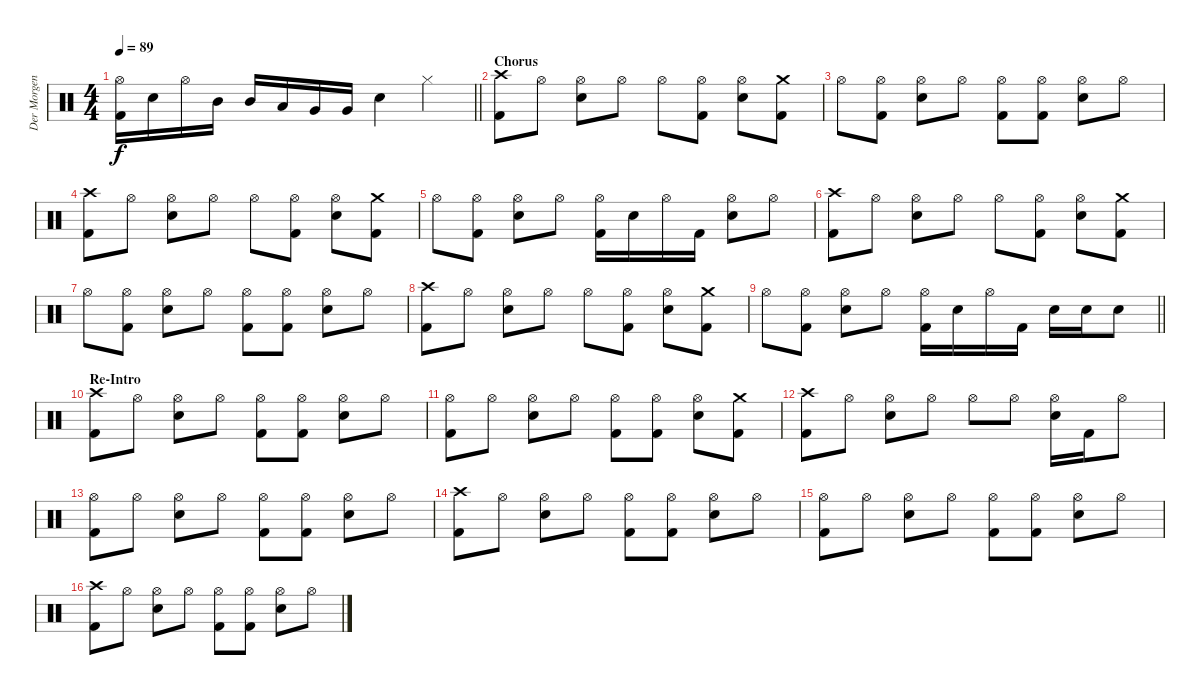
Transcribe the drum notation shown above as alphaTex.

\track ("Der Morgenstern" "Der Morgen") {instrument percussion}
\staff {score}
\articulation defaults
\ts (4 4)
\tempo 89
\clef neutral
\barLineRight lightlight
\ks c
("Hi-Hat (open)" "Kick (hit) 2").16{dy f} "Electric Snare (hit)".16 "Hi-Hat (open)".16 "Mid Tom (hit)".16 "Mid Tom (hit)".16 "Low Tom (hit)".16 "Very Low Tom (hit)".16 "Very Low Tom (hit)".16 "Electric Snare (hit)".4 "Hi-Hat (closed)".4 |
\section ("" "Chorus")
("Crash high (hit)" "Kick (hit) 2").8 "Hi-Hat (open)".8 ("Hi-Hat (open)" "Electric Snare (hit)").8 "Hi-Hat (open)".8 "Hi-Hat (open)".8 ("Hi-Hat (open)" "Kick (hit) 2").8 ("Hi-Hat (open)" "Electric Snare (hit)").8 ("Crash medium (hit)" "Kick (hit) 2").8 |
"Hi-Hat (open)".8 ("Hi-Hat (open)" "Kick (hit) 2").8 ("Hi-Hat (open)" "Electric Snare (hit)").8 "Hi-Hat (open)".8 ("Hi-Hat (open)" "Kick (hit) 2").8 ("Hi-Hat (open)" "Kick (hit) 2").8 ("Hi-Hat (open)" "Electric Snare (hit)").8 "Hi-Hat (open)".8 |
("Crash high (hit)" "Kick (hit) 2").8 "Hi-Hat (open)".8 ("Hi-Hat (open)" "Electric Snare (hit)").8 "Hi-Hat (open)".8 "Hi-Hat (open)".8 ("Hi-Hat (open)" "Kick (hit) 2").8 ("Hi-Hat (open)" "Electric Snare (hit)").8 ("Crash medium (hit)" "Kick (hit) 2").8 |
"Hi-Hat (open)".8 ("Hi-Hat (open)" "Kick (hit) 2").8 ("Hi-Hat (open)" "Electric Snare (hit)").8 "Hi-Hat (open)".8 ("Hi-Hat (open)" "Kick (hit) 2").16 "Electric Snare (hit)".16 "Hi-Hat (open)".16 "Kick (hit) 2".16 ("Hi-Hat (open)" "Electric Snare (hit)").8 "Hi-Hat (open)".8 |
("Crash high (hit)" "Kick (hit) 2").8 "Hi-Hat (open)".8 ("Hi-Hat (open)" "Electric Snare (hit)").8 "Hi-Hat (open)".8 "Hi-Hat (open)".8 ("Hi-Hat (open)" "Kick (hit) 2").8 ("Hi-Hat (open)" "Electric Snare (hit)").8 ("Crash medium (hit)" "Kick (hit) 2").8 |
"Hi-Hat (open)".8 ("Hi-Hat (open)" "Kick (hit) 2").8 ("Hi-Hat (open)" "Electric Snare (hit)").8 "Hi-Hat (open)".8 ("Hi-Hat (open)" "Kick (hit) 2").8 ("Hi-Hat (open)" "Kick (hit) 2").8 ("Hi-Hat (open)" "Electric Snare (hit)").8 "Hi-Hat (open)".8 |
("Crash high (hit)" "Kick (hit) 2").8 "Hi-Hat (open)".8 ("Hi-Hat (open)" "Electric Snare (hit)").8 "Hi-Hat (open)".8 "Hi-Hat (open)".8 ("Hi-Hat (open)" "Kick (hit) 2").8 ("Hi-Hat (open)" "Electric Snare (hit)").8 ("Crash medium (hit)" "Kick (hit) 2").8 |
\barLineRight lightlight "Hi-Hat (open)".8
("Hi-Hat (open)" "Kick (hit) 2").8 ("Hi-Hat (open)" "Electric Snare (hit)").8 "Hi-Hat (open)".8 ("Hi-Hat (open)" "Kick (hit) 2").16 "Electric Snare (hit)".16 "Hi-Hat (open)".16 "Kick (hit) 2".16 "Electric Snare (hit)".16 "Electric Snare (hit)".16 "Electric Snare (hit)".8 |
\section ("" "Re-Intro")
("Crash high (hit)" "Kick (hit) 2").8 "Hi-Hat (open)".8 ("Hi-Hat (open)" "Electric Snare (hit)").8 "Hi-Hat (open)".8 ("Hi-Hat (open)" "Kick (hit) 2").8 ("Hi-Hat (open)" "Kick (hit) 2").8 ("Hi-Hat (open)" "Electric Snare (hit)").8 "Hi-Hat (open)".8 |
("Hi-Hat (open)" "Kick (hit) 2").8 "Hi-Hat (open)".8 ("Hi-Hat (open)" "Electric Snare (hit)").8 "Hi-Hat (open)".8 ("Hi-Hat (open)" "Kick (hit) 2").8 ("Hi-Hat (open)" "Kick (hit) 2").8 ("Hi-Hat (open)" "Electric Snare (hit)").8 ("Crash medium (hit)" "Kick (hit) 2").8 |
("Crash high (hit)" "Kick (hit) 2").8 "Hi-Hat (open)".8 ("Hi-Hat (open)" "Electric Snare (hit)").8 "Hi-Hat (open)".8 "Hi-Hat (open)".8 "Hi-Hat (open)".8 ("Hi-Hat (open)" "Electric Snare (hit)").16 "Kick (hit) 2".16 "Hi-Hat (open)".8 |
("Hi-Hat (open)" "Kick (hit) 2").8 "Hi-Hat (open)".8 ("Hi-Hat (open)" "Electric Snare (hit)").8 "Hi-Hat (open)".8 ("Hi-Hat (open)" "Kick (hit) 2").8 ("Hi-Hat (open)" "Kick (hit) 2").8 ("Hi-Hat (open)" "Electric Snare (hit)").8 "Hi-Hat (open)".8 |
("Crash high (hit)" "Kick (hit) 2").8 "Hi-Hat (open)".8 ("Hi-Hat (open)" "Electric Snare (hit)").8 "Hi-Hat (open)".8 ("Hi-Hat (open)" "Kick (hit) 2").8 ("Hi-Hat (open)" "Kick (hit) 2").8 ("Hi-Hat (open)" "Electric Snare (hit)").8 "Hi-Hat (open)".8 |
("Hi-Hat (open)" "Kick (hit) 2").8 "Hi-Hat (open)".8 ("Hi-Hat (open)" "Electric Snare (hit)").8 "Hi-Hat (open)".8 ("Hi-Hat (open)" "Kick (hit) 2").8 ("Hi-Hat (open)" "Kick (hit) 2").8 ("Hi-Hat (open)" "Electric Snare (hit)").8 "Hi-Hat (open)".8 |
("Crash high (hit)" "Kick (hit) 2").8 "Hi-Hat (open)".8 ("Hi-Hat (open)" "Electric Snare (hit)").8 "Hi-Hat (open)".8 ("Hi-Hat (open)" "Kick (hit) 2").8 ("Hi-Hat (open)" "Kick (hit) 2").8 ("Hi-Hat (open)" "Electric Snare (hit)").8 "Hi-Hat (open)".8
